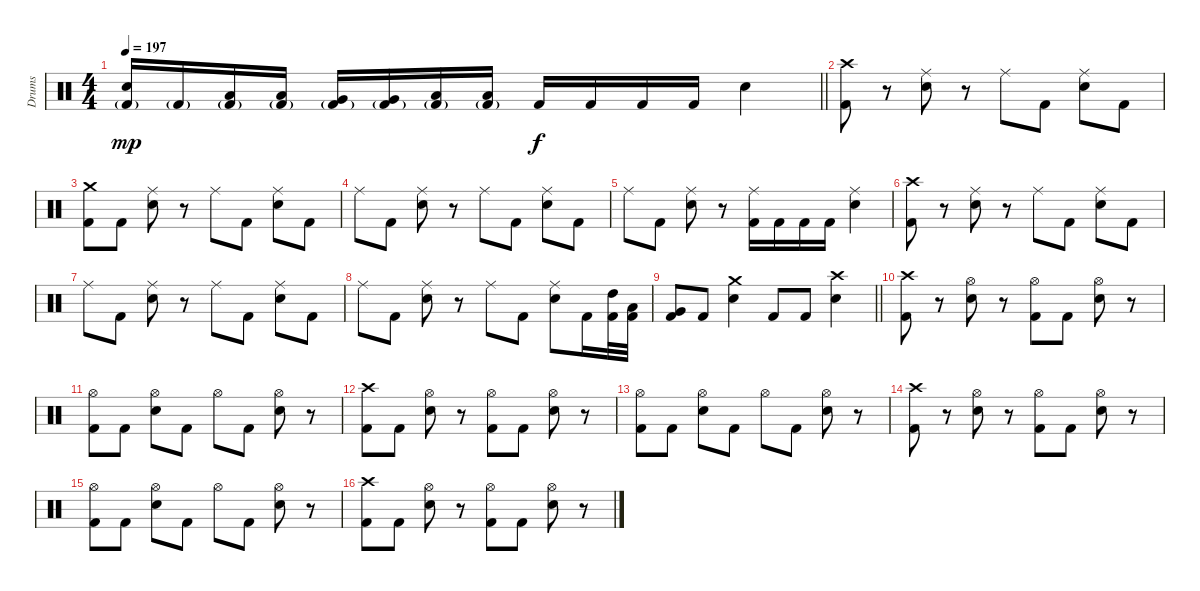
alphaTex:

\track ("Drums" "Drums") {instrument percussion}
\staff {score}
\articulation defaults
\ts (4 4)
\tempo 197
\clef neutral
\barLineRight lightlight
\ks c
("Electric Snare (hit)" "Kick (hit) 2"{g}).16{dy mp} "Kick (hit) 2"{g}.16 ("Low Tom (hit)" "Kick (hit) 2"{g}).16 ("Low Tom (hit)" "Kick (hit) 2"{g}).16 ("Very Low Tom (hit)" "Kick (hit) 2"{g}).16 ("Very Low Tom (hit)" "Kick (hit) 2"{g}).16 ("Low Floor Tom (hit)" "Kick (hit) 2"{g}).16 ("Low Floor Tom (hit)" "Kick (hit) 2"{g}).16 "Kick (hit) 2".16{dy f} "Kick (hit) 2".16 "Kick (hit) 2".16 "Kick (hit) 2".16 "Electric Snare (hit)".4 |
("Crash high (hit)" "Kick (hit) 2").8 r.8 ("Ride (middle)" "Electric Snare (hit)").8 r.8 "Ride (middle)".8 "Kick (hit) 2".8 ("Ride (middle)" "Electric Snare (hit)").8 "Kick (hit) 2".8 |
("Crash medium (hit)" "Kick (hit) 2").8 "Kick (hit) 2".8 ("Ride (middle)" "Electric Snare (hit)").8 r.8 "Ride (middle)".8 "Kick (hit) 2".8 ("Ride (middle)" "Electric Snare (hit)").8 "Kick (hit) 2".8 |
"Ride (middle)".8 "Kick (hit) 2".8 ("Ride (middle)" "Electric Snare (hit)").8 r.8 "Ride (middle)".8 "Kick (hit) 2".8 ("Ride (middle)" "Electric Snare (hit)").8 "Kick (hit) 2".8 |
"Ride (middle)".8 "Kick (hit) 2".8 ("Ride (middle)" "Electric Snare (hit)").8 r.8 ("Ride (middle)" "Kick (hit) 2").16 "Kick (hit) 2".16 "Kick (hit) 2".16 "Kick (hit) 2".16 ("Ride (middle)" "Electric Snare (hit)").4 |
("Crash high (hit)" "Kick (hit) 2").8 r.8 ("Ride (middle)" "Electric Snare (hit)").8 r.8 "Ride (middle)".8 "Kick (hit) 2".8 ("Ride (middle)" "Electric Snare (hit)").8 "Kick (hit) 2".8 |
"Ride (middle)".8 "Kick (hit) 2".8 ("Ride (middle)" "Electric Snare (hit)").8 r.8 "Ride (middle)".8 "Kick (hit) 2".8 ("Ride (middle)" "Electric Snare (hit)").8 "Kick (hit) 2".8 |
"Ride (middle)".8 "Kick (hit) 2".8 ("Ride (middle)" "Electric Snare (hit)").8 r.8 "Ride (middle)".8 "Kick (hit) 2".8 ("Ride (middle)" "Electric Snare (hit)").8 "Kick (hit) 2".16 ("High Tom (hit)" "Kick (hit) 2").32 ("Low Tom (hit)" "Kick (hit) 2").32 |
\barLineRight lightlight
("Very Low Tom (hit)" "Kick (hit) 2").8 "Kick (hit) 2".8 ("Crash medium (hit)" "Electric Snare (hit)").4 "Kick (hit) 2".8 "Kick (hit) 2".8 ("Crash high (hit)" "Electric Snare (hit)").4 |
("Crash high (hit)" "Kick (hit) 2").8 r.8 ("Hi-Hat (open)" "Electric Snare (hit)").8 r.8 ("Hi-Hat (open)" "Kick (hit) 2").8 "Kick (hit) 2".8 ("Hi-Hat (open)" "Electric Snare (hit)").8 r.8 |
("Hi-Hat (open)" "Kick (hit) 2").8 "Kick (hit) 2".8 ("Hi-Hat (open)" "Electric Snare (hit)").8 "Kick (hit) 2".8 "Hi-Hat (open)".8 "Kick (hit) 2".8 ("Hi-Hat (open)" "Electric Snare (hit)").8 r.8 |
("Crash high (hit)" "Kick (hit) 2").8 "Kick (hit) 2".8 ("Hi-Hat (open)" "Electric Snare (hit)").8 r.8 ("Hi-Hat (open)" "Kick (hit) 2").8 "Kick (hit) 2".8 ("Hi-Hat (open)" "Electric Snare (hit)").8 r.8 |
("Hi-Hat (open)" "Kick (hit) 2").8 "Kick (hit) 2".8 ("Hi-Hat (open)" "Electric Snare (hit)").8 "Kick (hit) 2".8 "Hi-Hat (open)".8 "Kick (hit) 2".8 ("Hi-Hat (open)" "Electric Snare (hit)").8 r.8 |
("Crash high (hit)" "Kick (hit) 2").8 r.8 ("Hi-Hat (open)" "Electric Snare (hit)").8 r.8 ("Hi-Hat (open)" "Kick (hit) 2").8 "Kick (hit) 2".8 ("Hi-Hat (open)" "Electric Snare (hit)").8 r.8 |
("Hi-Hat (open)" "Kick (hit) 2").8 "Kick (hit) 2".8 ("Hi-Hat (open)" "Electric Snare (hit)").8 "Kick (hit) 2".8 "Hi-Hat (open)".8 "Kick (hit) 2".8 ("Hi-Hat (open)" "Electric Snare (hit)").8 r.8 |
("Crash high (hit)" "Kick (hit) 2").8 "Kick (hit) 2".8 ("Hi-Hat (open)" "Electric Snare (hit)").8 r.8 ("Hi-Hat (open)" "Kick (hit) 2").8 "Kick (hit) 2".8 ("Hi-Hat (open)" "Electric Snare (hit)").8 r.8
